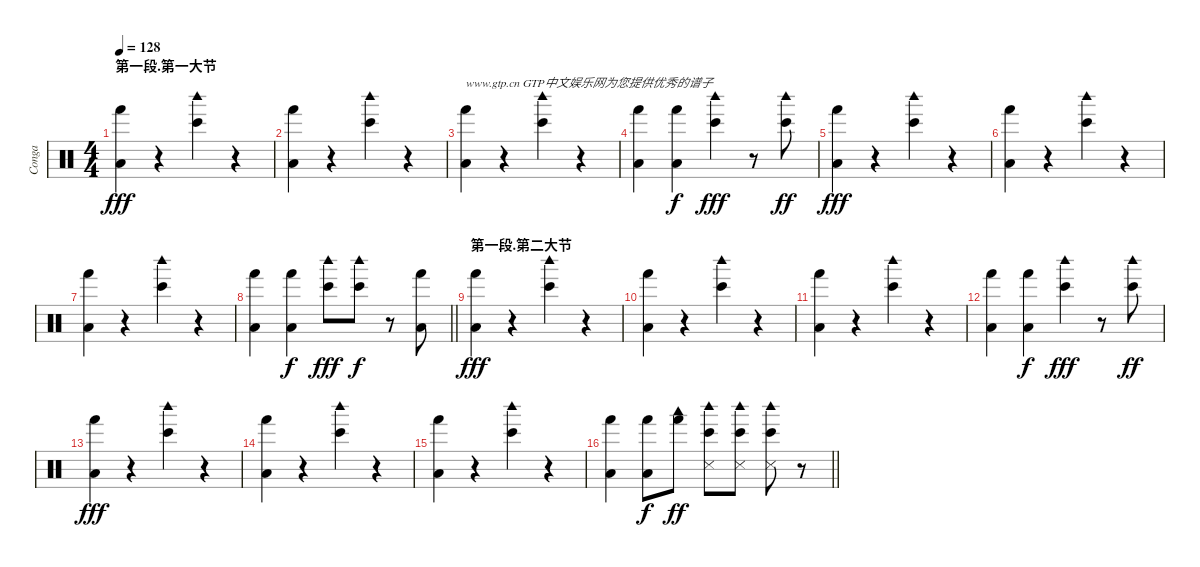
\track ("Conga" "Conga") {instrument percussion}
\staff {score}
\articulation defaults
\ts (4 4)
\section ("" "第一段.第一大节")
\tempo 128
\clef neutral
\ks c
("Hand (hit)" "Low Floor Tom (hit)").4{dy fff} r.4 ("Bongo High (hit)" "Woodblock high (hit)").4 r.4 |
("Hand (hit)" "Low Floor Tom (hit)").4 r.4 ("Bongo High (hit)" "Woodblock high (hit)").4 r.4 |
("Hand (hit)" "Low Floor Tom (hit)").4{txt "www.gtp.cn GTP中文娱乐网为您提供优秀的谱子"} r.4 ("Bongo High (hit)" "Woodblock high (hit)").4 r.4 |
("Hand (hit)" "Low Floor Tom (hit)").4 ("Hand (hit)" "Low Floor Tom (hit)").4{dy f} ("Bongo High (hit)" "Woodblock high (hit)").4{dy fff} r.8 ("Bongo High (hit)" "Woodblock high (hit)").8{dy ff} |
("Hand (hit)" "Low Floor Tom (hit)").4{dy fff} r.4 ("Bongo High (hit)" "Woodblock high (hit)").4 r.4 |
("Hand (hit)" "Low Floor Tom (hit)").4 r.4 ("Bongo High (hit)" "Woodblock high (hit)").4 r.4 |
("Hand (hit)" "Low Floor Tom (hit)").4 r.4 ("Bongo High (hit)" "Woodblock high (hit)").4 r.4 |
\barLineRight lightlight
("Hand (hit)" "Low Floor Tom (hit)").4 ("Hand (hit)" "Low Floor Tom (hit)").4{dy f} ("Bongo High (hit)" "Woodblock high (hit)").8{dy fff} ("Bongo High (hit)" "Woodblock high (hit)").8{dy f} r.8 ("Hand (hit)" "Low Floor Tom (hit)").8 |
\section ("" "第一段.第二大节")
("Hand (hit)" "Low Floor Tom (hit)").4{dy fff} r.4 ("Bongo High (hit)" "Woodblock high (hit)").4 r.4 |
("Hand (hit)" "Low Floor Tom (hit)").4 r.4 ("Bongo High (hit)" "Woodblock high (hit)").4 r.4 |
("Hand (hit)" "Low Floor Tom (hit)").4 r.4 ("Bongo High (hit)" "Woodblock high (hit)").4 r.4 |
("Hand (hit)" "Low Floor Tom (hit)").4 ("Hand (hit)" "Low Floor Tom (hit)").4{dy f} ("Bongo High (hit)" "Woodblock high (hit)").4{dy fff} r.8 ("Bongo High (hit)" "Woodblock high (hit)").8{dy ff} |
("Hand (hit)" "Low Floor Tom (hit)").4{dy fff} r.4 ("Bongo High (hit)" "Woodblock high (hit)").4 r.4 |
("Hand (hit)" "Low Floor Tom (hit)").4 r.4 ("Bongo High (hit)" "Woodblock high (hit)").4 r.4 |
("Hand (hit)" "Low Floor Tom (hit)").4 r.4 ("Bongo High (hit)" "Woodblock high (hit)").4 r.4 |
\barLineRight lightlight
("Hand (hit)" "Low Floor Tom (hit)").4 ("Hand (hit)" "Low Floor Tom (hit)").8{dy f} ("Hand (hit)" "Woodblock low (hit)").8{dy ff} ("Bongo High (hit)" "Woodblock high (hit)" "Snare (side stick) 3").8 ("Bongo High (hit)" "Woodblock high (hit)" "Snare (side stick) 3").8 ("Bongo High (hit)" "Woodblock high (hit)" "Snare (side stick) 3").8 r.8
